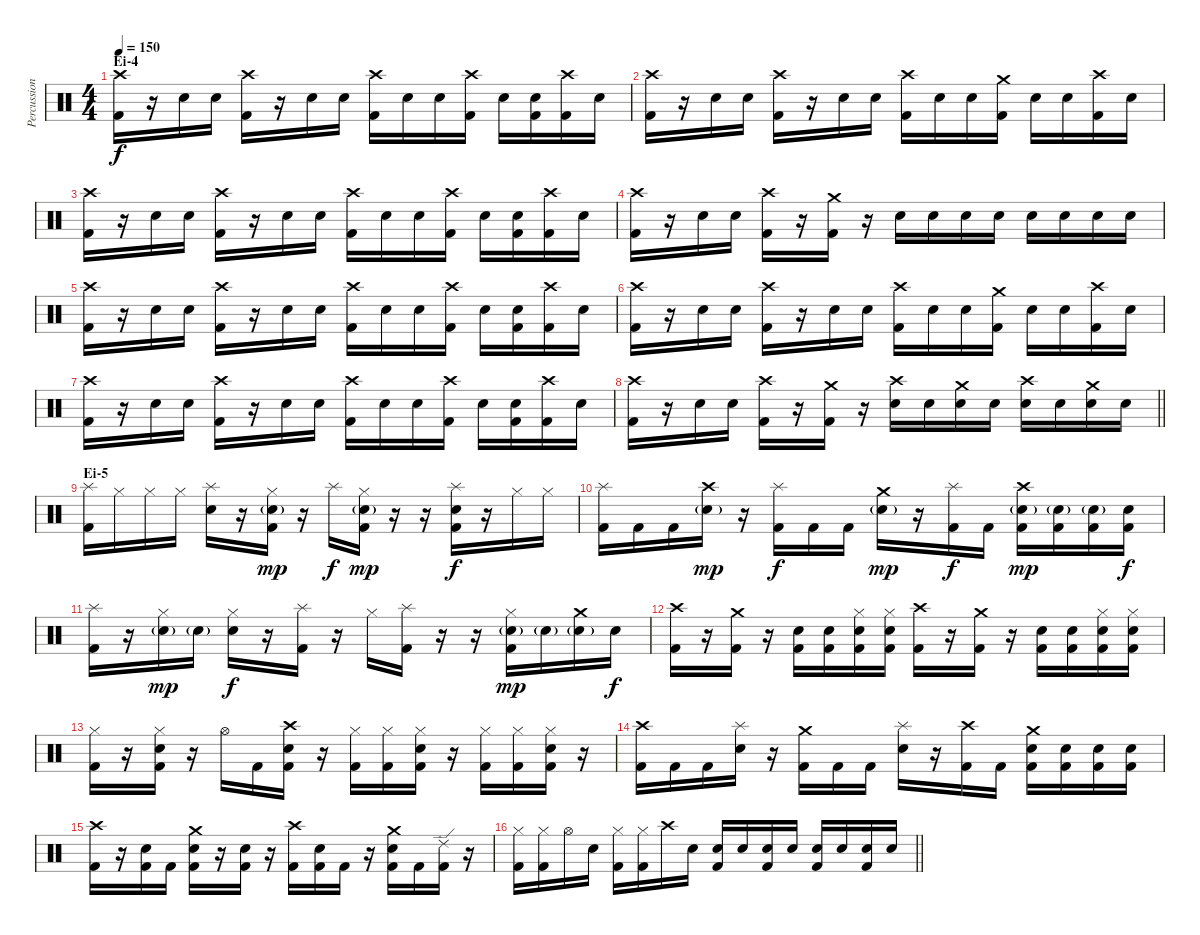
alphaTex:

\track ("Percussion" "Percussion") {instrument percussion}
\staff {score}
\articulation defaults
\ts (4 4)
\section ("" "Ei-4")
\tempo 150
\clef neutral
\ks c
("Crash high (hit)" "Kick (hit) 2").16{dy f} r.16 "Electric Snare (hit)".16 "Electric Snare (hit)".16 ("Crash high (hit)" "Kick (hit) 2").16 r.16 "Electric Snare (hit)".16 "Electric Snare (hit)".16 ("Crash high (hit)" "Kick (hit) 2").16 "Electric Snare (hit)".16 "Electric Snare (hit)".16 ("Crash high (hit)" "Kick (hit) 2").16 "Electric Snare (hit)".16 ("Electric Snare (hit)" "Kick (hit) 2").16 ("Crash high (hit)" "Kick (hit) 2").16 "Electric Snare (hit)".16 |
("Crash high (hit)" "Kick (hit) 2").16 r.16 "Electric Snare (hit)".16 "Electric Snare (hit)".16 ("Crash high (hit)" "Kick (hit) 2").16 r.16 "Electric Snare (hit)".16 "Electric Snare (hit)".16 ("Crash high (hit)" "Kick (hit) 2").16 "Electric Snare (hit)".16 "Electric Snare (hit)".16 ("Crash medium (hit)" "Kick (hit) 2").16 "Electric Snare (hit)".16 "Electric Snare (hit)".16 ("Crash high (hit)" "Kick (hit) 2").16 "Electric Snare (hit)".16 |
("Crash high (hit)" "Kick (hit) 2").16 r.16 "Electric Snare (hit)".16 "Electric Snare (hit)".16 ("Crash high (hit)" "Kick (hit) 2").16 r.16 "Electric Snare (hit)".16 "Electric Snare (hit)".16 ("Crash high (hit)" "Kick (hit) 2").16 "Electric Snare (hit)".16 "Electric Snare (hit)".16 ("Crash high (hit)" "Kick (hit) 2").16 "Electric Snare (hit)".16 ("Electric Snare (hit)" "Kick (hit) 2").16 ("Crash high (hit)" "Kick (hit) 2").16 "Electric Snare (hit)".16 |
("Crash high (hit)" "Kick (hit) 2").16 r.16 "Electric Snare (hit)".16 "Electric Snare (hit)".16 ("Crash high (hit)" "Kick (hit) 2").16 r.16 ("Crash medium (hit)" "Kick (hit) 2").16 r.16 "Electric Snare (hit)".16 "Electric Snare (hit)".16 "Electric Snare (hit)".16 "Electric Snare (hit)".16 "Electric Snare (hit)".16 "Electric Snare (hit)".16 "Electric Snare (hit)".16 "Electric Snare (hit)".16 |
("Crash high (hit)" "Kick (hit) 2").16 r.16 "Electric Snare (hit)".16 "Electric Snare (hit)".16 ("Crash high (hit)" "Kick (hit) 2").16 r.16 "Electric Snare (hit)".16 "Electric Snare (hit)".16 ("Crash high (hit)" "Kick (hit) 2").16 "Electric Snare (hit)".16 "Electric Snare (hit)".16 ("Crash high (hit)" "Kick (hit) 2").16 "Electric Snare (hit)".16 ("Electric Snare (hit)" "Kick (hit) 2").16 ("Crash high (hit)" "Kick (hit) 2").16 "Electric Snare (hit)".16 |
("Crash high (hit)" "Kick (hit) 2").16 r.16 "Electric Snare (hit)".16 "Electric Snare (hit)".16 ("Crash high (hit)" "Kick (hit) 2").16 r.16 "Electric Snare (hit)".16 "Electric Snare (hit)".16 ("Crash high (hit)" "Kick (hit) 2").16 "Electric Snare (hit)".16 "Electric Snare (hit)".16 ("Crash medium (hit)" "Kick (hit) 2").16 "Electric Snare (hit)".16 "Electric Snare (hit)".16 ("Crash high (hit)" "Kick (hit) 2").16 "Electric Snare (hit)".16 |
("Crash high (hit)" "Kick (hit) 2").16 r.16 "Electric Snare (hit)".16 "Electric Snare (hit)".16 ("Crash high (hit)" "Kick (hit) 2").16 r.16 "Electric Snare (hit)".16 "Electric Snare (hit)".16 ("Crash high (hit)" "Kick (hit) 2").16 "Electric Snare (hit)".16 "Electric Snare (hit)".16 ("Crash high (hit)" "Kick (hit) 2").16 "Electric Snare (hit)".16 ("Electric Snare (hit)" "Kick (hit) 2").16 ("Crash high (hit)" "Kick (hit) 2").16 "Electric Snare (hit)".16 |
\barLineRight lightlight
("Crash high (hit)" "Kick (hit) 2").16 r.16 "Electric Snare (hit)".16 "Electric Snare (hit)".16 ("Crash high (hit)" "Kick (hit) 2").16 r.16 ("Crash medium (hit)" "Kick (hit) 2").16 r.16 ("Crash high (hit)" "Electric Snare (hit)").16 "Electric Snare (hit)".16 ("Crash medium (hit)" "Electric Snare (hit)").16 "Electric Snare (hit)".16 ("Crash high (hit)" "Electric Snare (hit)").16 "Electric Snare (hit)".16 ("Crash medium (hit)" "Electric Snare (hit)").16 "Electric Snare (hit)".16 |
\section ("" "Ei-5")
("Splash (hit)" "Kick (hit) 2").16 "Hi-Hat (closed)".16 "Hi-Hat (closed)".16 "Hi-Hat (closed)".16 ("Splash (hit)" "Electric Snare (hit)").16 r.16 ("Hi-Hat (closed)" "Electric Snare (hit)"{g} "Kick (hit) 2").16{dy mp} r.16 "Splash (hit)".16{dy f} ("Hi-Hat (closed)" "Electric Snare (hit)"{g} "Kick (hit) 2").16{dy mp} r.16 r.16 ("Splash (hit)" "Electric Snare (hit)" "Kick (hit) 2").16{dy f} r.16 "Hi-Hat (closed)".16 "Hi-Hat (closed)".16 |
("Splash (hit)" "Kick (hit) 2").16 "Kick (hit) 2".16 "Kick (hit) 2".16 ("Crash high (hit)" "Electric Snare (hit)"{g}).16{dy mp} r.16 ("Splash (hit)" "Kick (hit) 2").16{dy f} "Kick (hit) 2".16 "Kick (hit) 2".16 ("Crash medium (hit)" "Electric Snare (hit)"{g}).16{dy mp} r.16 ("Splash (hit)" "Kick (hit) 2").16{dy f} "Kick (hit) 2".16 ("Crash high (hit)" "Electric Snare (hit)"{g} "Kick (hit) 2").16{dy mp} ("Electric Snare (hit)"{g} "Kick (hit) 2").16 ("Electric Snare (hit)"{g} "Kick (hit) 2").16 ("Electric Snare (hit)" "Kick (hit) 2").16{dy f} |
("Splash (hit)" "Kick (hit) 2").16 r.16 ("Hi-Hat (closed)" "Electric Snare (hit)"{g}).16{dy mp} "Electric Snare (hit)"{g}.16 ("Hi-Hat (closed)" "Electric Snare (hit)").16{dy f} r.16 ("Splash (hit)" "Kick (hit) 2").16 r.16 "Hi-Hat (closed)".16 ("Splash (hit)" "Kick (hit) 2").16 r.16 r.16 ("Hi-Hat (closed)" "Electric Snare (hit)"{g} "Kick (hit) 2").16{dy mp} "Electric Snare (hit)"{g}.16 ("Crash medium (hit)" "Electric Snare (hit)"{g}).16 "Electric Snare (hit)".16{dy f} |
("Crash high (hit)" "Kick (hit) 2").16 r.16 ("Crash medium (hit)" "Kick (hit) 2").16 r.16 ("Electric Snare (hit)" "Kick (hit) 2").16 ("Electric Snare (hit)" "Kick (hit) 2").16 ("Hi-Hat (closed)" "Electric Snare (hit)" "Kick (hit) 2").16 ("Hi-Hat (closed)" "Electric Snare (hit)" "Kick (hit) 2").16 ("Crash high (hit)" "Kick (hit) 2").16 r.16 ("Crash medium (hit)" "Kick (hit) 2").16 r.16 ("Electric Snare (hit)" "Kick (hit) 2").16 ("Electric Snare (hit)" "Kick (hit) 2").16 ("Hi-Hat (closed)" "Electric Snare (hit)" "Kick (hit) 2").16 ("Hi-Hat (closed)" "Electric Snare (hit)" "Kick (hit) 2").16 |
("Hi-Hat (closed)" "Kick (hit) 2").16 r.16 ("Hi-Hat (closed)" "Electric Snare (hit)" "Kick (hit) 2").16 r.16 "Hi-Hat (open)".16 "Kick (hit) 2".16 ("Crash high (hit)" "Electric Snare (hit)" "Kick (hit) 2").16 r.16 ("Hi-Hat (closed)" "Kick (hit) 2").16 ("Hi-Hat (closed)" "Kick (hit) 2").16 ("Hi-Hat (closed)" "Electric Snare (hit)" "Kick (hit) 2").16 r.16 ("Hi-Hat (closed)" "Kick (hit) 2").16 ("Hi-Hat (closed)" "Kick (hit) 2").16 ("Hi-Hat (closed)" "Electric Snare (hit)" "Kick (hit) 2").16 r.16 |
("Crash high (hit)" "Kick (hit) 2").16 "Kick (hit) 2".16 "Kick (hit) 2".16 ("Splash (hit)" "Electric Snare (hit)").16 r.16 ("Crash medium (hit)" "Kick (hit) 2").16 "Kick (hit) 2".16 "Kick (hit) 2".16 ("Splash (hit)" "Electric Snare (hit)").16 r.16 ("Crash high (hit)" "Kick (hit) 2").16 "Kick (hit) 2".16 ("Crash medium (hit)" "Electric Snare (hit)" "Kick (hit) 2").16 ("Electric Snare (hit)" "Kick (hit) 2").16 ("Electric Snare (hit)" "Kick (hit) 2").16 ("Electric Snare (hit)" "Kick (hit) 2").16 |
("Crash high (hit)" "Kick (hit) 2").16 r.16 ("Electric Snare (hit)" "Kick (hit) 2").16 "Kick (hit) 2".16 ("Crash medium (hit)" "Electric Snare (hit)" "Kick (hit) 2").16 r.16 ("Electric Snare (hit)" "Kick (hit) 2").16 r.16 ("Crash high (hit)" "Kick (hit) 2").16 ("Electric Snare (hit)" "Kick (hit) 2").16 "Kick (hit) 2".16 r.16 ("Crash medium (hit)" "Electric Snare (hit)" "Kick (hit) 2").16 "Kick (hit) 2".16 ("Ride (edge) 2" "Kick (hit) 2").16 r.16 |
\barLineRight lightlight
("Hi-Hat (closed)" "Kick (hit) 2").16 ("Hi-Hat (closed)" "Kick (hit) 2").16 "Hi-Hat (open)".16 "Electric Snare (hit)".16 ("Hi-Hat (closed)" "Kick (hit) 2").16 ("Hi-Hat (closed)" "Kick (hit) 2").16 "Crash high (hit)".16 "Electric Snare (hit)".16 ("Electric Snare (hit)" "Kick (hit) 2").16 "Electric Snare (hit)".16 ("Electric Snare (hit)" "Kick (hit) 2").16 "Electric Snare (hit)".16 ("Electric Snare (hit)" "Kick (hit) 2").16 "Electric Snare (hit)".16 ("Electric Snare (hit)" "Kick (hit) 2").16 "Electric Snare (hit)".16
